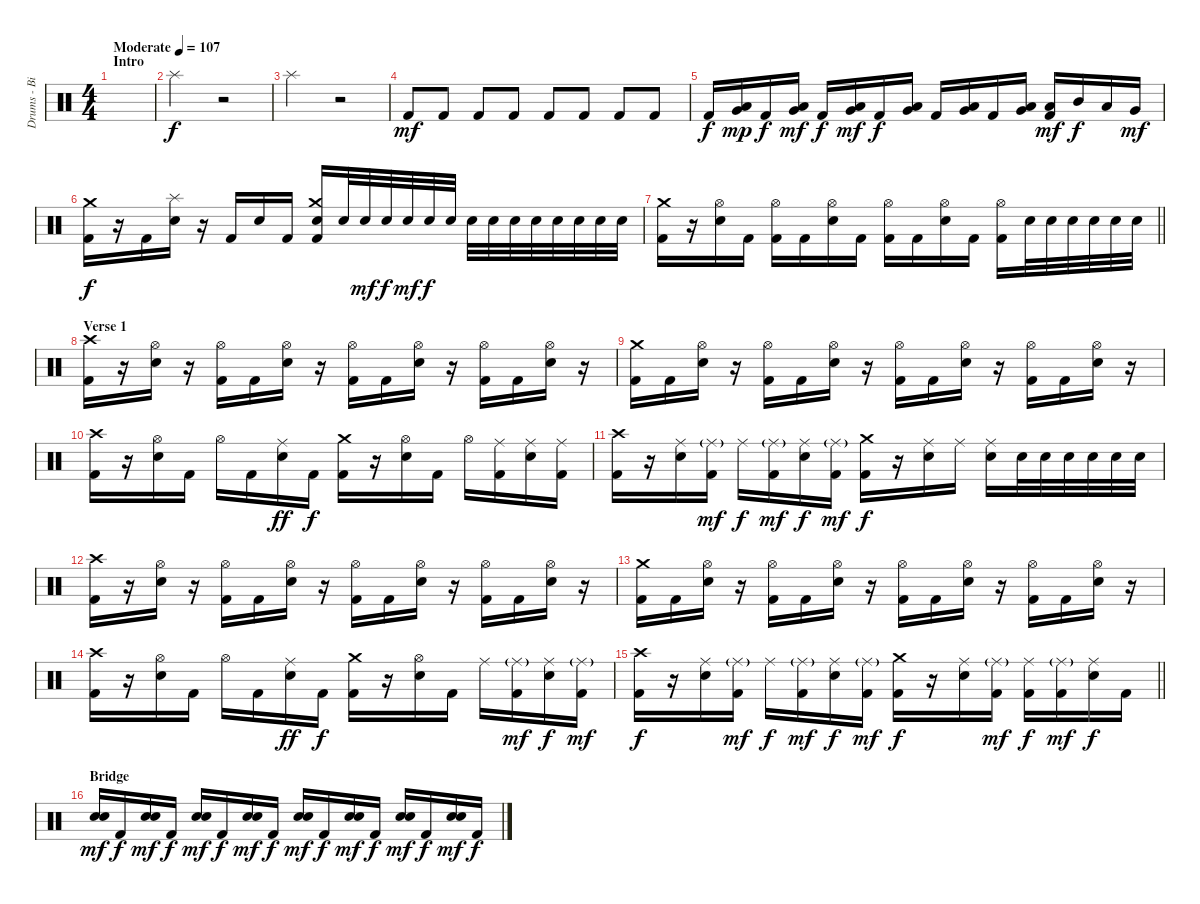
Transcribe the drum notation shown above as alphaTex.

\track ("Drums - Bill Stevenson" "Drums - Bi") {instrument percussion}
\staff {score}
\articulation defaults
\ts (4 4)
\section ("" "Intro")
\tempo (107 "Moderate")
\clef neutral
\ks c
|
"Splash (hit)".2{volume 9} r.2 |
"Splash (hit)".2 r.2 |
"Kick (hit) 2".8{dy mf volume 15} "Kick (hit) 2".8 "Kick (hit) 2".8 "Kick (hit) 2".8 "Kick (hit) 2".8 "Kick (hit) 2".8 "Kick (hit) 2".8 "Kick (hit) 2".8 |
"Kick (hit) 2".16{dy f} ("Low Tom (hit)" "Very Low Tom (hit)").16{dy mp} "Kick (hit) 2".16{dy f} ("Low Tom (hit)" "Very Low Tom (hit)").16{dy mf} "Kick (hit) 2".16{dy f} ("Low Tom (hit)" "Very Low Tom (hit)").16{dy mf} "Kick (hit) 2".16{dy f} ("Low Tom (hit)" "Very Low Tom (hit)").16 "Kick (hit) 2".16 ("Low Tom (hit)" "Very Low Tom (hit)").16 "Kick (hit) 2".16 ("Low Tom (hit)" "Very Low Tom (hit)").16 ("Low Floor Tom (hit)" "Kick (hit) 2").16{dy mf} "Mid Tom (hit)".16{dy f} "Low Tom (hit)".16 "Very Low Tom (hit)".16{dy mf} |
("Crash medium (hit)" "Kick (hit) 2").16{dy f} r.16 "Kick (hit) 2".16 ("Splash (hit)" "Electric Snare (hit)").16 r.16 "Kick (hit) 2".16 "Electric Snare (hit)".16 "Kick (hit) 2".16 ("Crash medium (hit)" "Electric Snare (hit)" "Kick (hit) 2").16 "Electric Snare (hit)".32 "Electric Snare (hit)".32{dy mf} "Electric Snare (hit)".32{dy f} "Electric Snare (hit)".32{dy mf} "Electric Snare (hit)".32{dy f} "Electric Snare (hit)".32 "Electric Snare (hit)".32 "Electric Snare (hit)".32 "Electric Snare (hit)".32 "Electric Snare (hit)".32 "Electric Snare (hit)".32 "Electric Snare (hit)".32 "Electric Snare (hit)".32 "Electric Snare (hit)".32 |
\barLineRight lightlight
("Crash medium (hit)" "Kick (hit) 2").16 r.16 ("Hi-Hat (open)" "Electric Snare (hit)").16 "Kick (hit) 2".16 ("Hi-Hat (open)" "Kick (hit) 2").16 "Kick (hit) 2".16 ("Hi-Hat (open)" "Electric Snare (hit)").16 "Kick (hit) 2".16 ("Hi-Hat (open)" "Kick (hit) 2").16 "Kick (hit) 2".16 ("Hi-Hat (open)" "Electric Snare (hit)").16 "Kick (hit) 2".16 ("Hi-Hat (open)" "Kick (hit) 2").16 "Electric Snare (hit)".32 "Electric Snare (hit)".32 "Electric Snare (hit)".32 "Electric Snare (hit)".32 "Electric Snare (hit)".32 "Electric Snare (hit)".32 |
\section ("" "Verse 1")
("Crash high (hit)" "Kick (hit) 2").16 r.16 ("Hi-Hat (open)" "Electric Snare (hit)").16 r.16 ("Hi-Hat (open)" "Kick (hit) 2").16 "Kick (hit) 2".16 ("Hi-Hat (open)" "Electric Snare (hit)").16 r.16 ("Hi-Hat (open)" "Kick (hit) 2").16 "Kick (hit) 2".16 ("Hi-Hat (open)" "Electric Snare (hit)").16 r.16 ("Hi-Hat (open)" "Kick (hit) 2").16 "Kick (hit) 2".16 ("Hi-Hat (open)" "Electric Snare (hit)").16 r.16 |
("Crash medium (hit)" "Kick (hit) 2").16 "Kick (hit) 2".16 ("Hi-Hat (open)" "Electric Snare (hit)").16 r.16 ("Hi-Hat (open)" "Kick (hit) 2").16 "Kick (hit) 2".16 ("Hi-Hat (open)" "Electric Snare (hit)").16 r.16 ("Hi-Hat (open)" "Kick (hit) 2").16 "Kick (hit) 2".16 ("Hi-Hat (open)" "Electric Snare (hit)").16 r.16 ("Hi-Hat (open)" "Kick (hit) 2").16 "Kick (hit) 2".16 ("Hi-Hat (open)" "Electric Snare (hit)").16 r.16 |
("Crash high (hit)" "Kick (hit) 2").16 r.16 ("Hi-Hat (open)" "Electric Snare (hit)").16 "Kick (hit) 2".16 "Hi-Hat (open)".16 "Kick (hit) 2".16 ("Ride (middle)" "Electric Snare (hit)").16{dy ff} "Kick (hit) 2".16{dy f} ("Crash medium (hit)" "Kick (hit) 2").16 r.16 ("Hi-Hat (open)" "Electric Snare (hit)").16 "Kick (hit) 2".16 "Hi-Hat (open)".16 ("Ride (middle)" "Kick (hit) 2").16 ("Ride (middle)" "Electric Snare (hit)").16 ("Ride (middle)" "Kick (hit) 2").16 |
("Crash high (hit)" "Kick (hit) 2").16 r.16 ("Ride (middle)" "Electric Snare (hit)").16 ("Ride (middle)"{g} "Kick (hit) 2").16{dy mf} "Ride (middle)".16{dy f} ("Ride (middle)"{g} "Kick (hit) 2").16{dy mf} ("Ride (middle)" "Electric Snare (hit)").16{dy f} ("Ride (middle)"{g} "Kick (hit) 2").16{dy mf} ("Crash medium (hit)" "Kick (hit) 2").16{dy f} r.16 ("Ride (middle)" "Electric Snare (hit)").16 "Ride (middle)".16 ("Ride (middle)" "Electric Snare (hit)").16 "Electric Snare (hit)".32 "Electric Snare (hit)".32 "Electric Snare (hit)".32 "Electric Snare (hit)".32 "Electric Snare (hit)".32 "Electric Snare (hit)".32 |
("Crash high (hit)" "Kick (hit) 2").16 r.16 ("Hi-Hat (open)" "Electric Snare (hit)").16 r.16 ("Hi-Hat (open)" "Kick (hit) 2").16 "Kick (hit) 2".16 ("Hi-Hat (open)" "Electric Snare (hit)").16 r.16 ("Hi-Hat (open)" "Kick (hit) 2").16 "Kick (hit) 2".16 ("Hi-Hat (open)" "Electric Snare (hit)").16 r.16 ("Hi-Hat (open)" "Kick (hit) 2").16 "Kick (hit) 2".16 ("Hi-Hat (open)" "Electric Snare (hit)").16 r.16 |
("Crash medium (hit)" "Kick (hit) 2").16 "Kick (hit) 2".16 ("Hi-Hat (open)" "Electric Snare (hit)").16 r.16 ("Hi-Hat (open)" "Kick (hit) 2").16 "Kick (hit) 2".16 ("Hi-Hat (open)" "Electric Snare (hit)").16 r.16 ("Hi-Hat (open)" "Kick (hit) 2").16 "Kick (hit) 2".16 ("Hi-Hat (open)" "Electric Snare (hit)").16 r.16 ("Hi-Hat (open)" "Kick (hit) 2").16 "Kick (hit) 2".16 ("Hi-Hat (open)" "Electric Snare (hit)").16 r.16 |
("Crash high (hit)" "Kick (hit) 2").16 r.16 ("Hi-Hat (open)" "Electric Snare (hit)").16 "Kick (hit) 2".16 "Hi-Hat (open)".16 "Kick (hit) 2".16 ("Ride (middle)" "Electric Snare (hit)").16{dy ff} "Kick (hit) 2".16{dy f} ("Crash medium (hit)" "Kick (hit) 2").16 r.16 ("Hi-Hat (open)" "Electric Snare (hit)").16 "Kick (hit) 2".16 "Ride (middle)".16 ("Ride (middle)"{g} "Kick (hit) 2").16{dy mf} ("Ride (middle)" "Electric Snare (hit)").16{dy f} ("Ride (middle)"{g} "Kick (hit) 2").16{dy mf} |
\barLineRight lightlight
("Crash high (hit)" "Kick (hit) 2").16{dy f} r.16 ("Ride (middle)" "Electric Snare (hit)").16 ("Ride (middle)"{g} "Kick (hit) 2").16{dy mf} "Ride (middle)".16{dy f} ("Ride (middle)"{g} "Kick (hit) 2").16{dy mf} ("Ride (middle)" "Electric Snare (hit)").16{dy f} ("Ride (middle)"{g} "Kick (hit) 2").16{dy mf} ("Crash medium (hit)" "Kick (hit) 2").16{dy f} r.16 ("Ride (middle)" "Electric Snare (hit)").16 ("Ride (middle)"{g} "Kick (hit) 2").16{dy mf} ("Ride (middle)" "Kick (hit) 2").16{dy f} ("Ride (middle)"{g} "Kick (hit) 2").16{dy mf} ("Ride (middle)" "Electric Snare (hit)").16{dy f} "Kick (hit) 2".16 |
\section ("" "Bridge")
("Electric Snare (hit)" "Electric Snare (hit)").16{dy mf} "Kick (hit) 2".16{dy f} ("Electric Snare (hit)" "Electric Snare (hit)").16{dy mf} "Kick (hit) 2".16{dy f} ("Electric Snare (hit)" "Electric Snare (hit)").16{dy mf} "Kick (hit) 2".16{dy f} ("Electric Snare (hit)" "Electric Snare (hit)").16{dy mf} "Kick (hit) 2".16{dy f} ("Electric Snare (hit)" "Electric Snare (hit)").16{dy mf} "Kick (hit) 2".16{dy f} ("Electric Snare (hit)" "Electric Snare (hit)").16{dy mf} "Kick (hit) 2".16{dy f} ("Electric Snare (hit)" "Electric Snare (hit)").16{dy mf} "Kick (hit) 2".16{dy f} ("Electric Snare (hit)" "Electric Snare (hit)").16{dy mf} "Kick (hit) 2".16{dy f}
